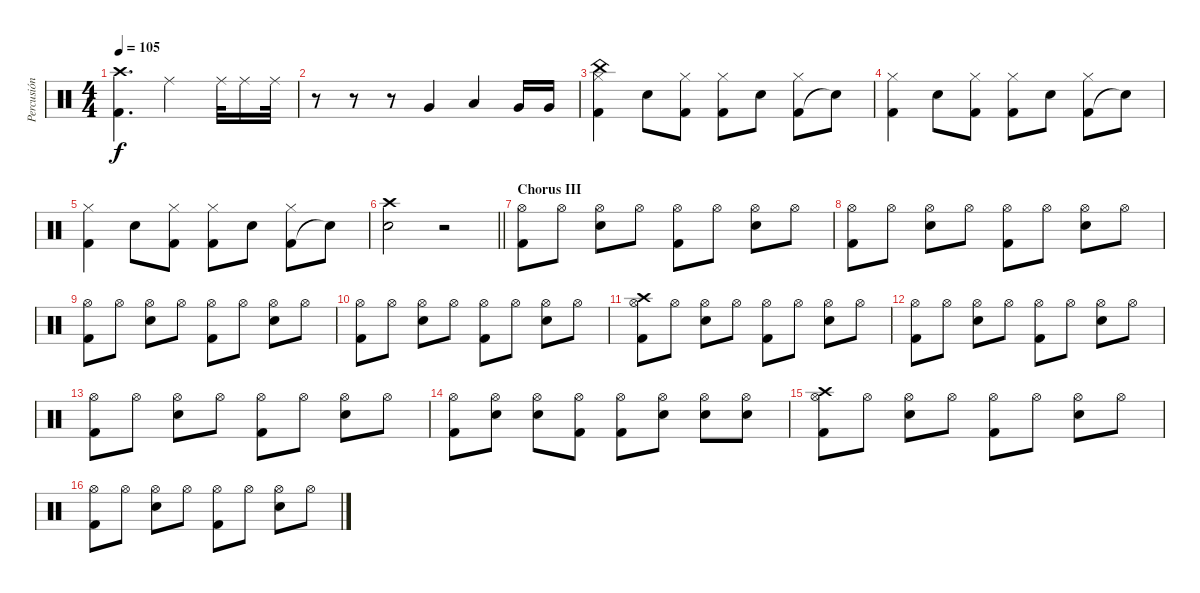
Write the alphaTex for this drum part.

\track ("Percusión" "Percusión") {instrument percussion}
\staff {score}
\articulation defaults
\ts (4 4)
\tempo 105
\clef neutral
\ks c
("Kick (hit) 2" "Crash high (hit)").4{d dy f} "Ride (middle)".2 "Ride (middle)".32 "Ride (middle)".16 "Ride (middle)".32 |
r.8 r.8 r.8 "Very Low Tom (hit)".4 "Low Floor Tom (hit)".4 "Very Low Tom (hit)".16 "Very Low Tom (hit)".16 |
("Kick (hit) 2" "Hi-Hat (closed)" "China (hit)").4 "Snare (hit) 2".8 ("Kick (hit) 2" "Hi-Hat (closed)").8 ("Kick (hit) 2" "Hi-Hat (closed)").8 "Snare (hit) 2".8 ("Kick (hit) 2" "Hi-Hat (closed)").8 "Snare (hit) 2"{t}.8 |
("Kick (hit) 2" "Hi-Hat (closed)").4 "Snare (hit) 2".8 ("Kick (hit) 2" "Hi-Hat (closed)").8 ("Kick (hit) 2" "Hi-Hat (closed)").8 "Snare (hit) 2".8 ("Kick (hit) 2" "Hi-Hat (closed)").8 "Snare (hit) 2"{t}.8 |
("Kick (hit) 2" "Hi-Hat (closed)").4 "Snare (hit) 2".8 ("Kick (hit) 2" "Hi-Hat (closed)").8 ("Kick (hit) 2" "Hi-Hat (closed)").8 "Snare (hit) 2".8 ("Kick (hit) 2" "Hi-Hat (closed)").8 "Snare (hit) 2"{t}.8 |
\barLineRight lightlight
("Crash high (hit)" "Snare (hit) 2").2 r.2 |
\section ("" "Chorus III")
("Hi-Hat (open)" "Kick (hit) 2").8 "Hi-Hat (open)".8 ("Hi-Hat (open)" "Snare (hit) 2").8 "Hi-Hat (open)".8 ("Hi-Hat (open)" "Kick (hit) 2").8 "Hi-Hat (open)".8 ("Hi-Hat (open)" "Snare (hit) 2").8 "Hi-Hat (open)".8 |
("Hi-Hat (open)" "Kick (hit) 2").8 "Hi-Hat (open)".8 ("Hi-Hat (open)" "Snare (hit) 2").8 "Hi-Hat (open)".8 ("Hi-Hat (open)" "Kick (hit) 2").8 "Hi-Hat (open)".8 ("Hi-Hat (open)" "Snare (hit) 2").8 "Hi-Hat (open)".8 |
("Hi-Hat (open)" "Kick (hit) 2").8 "Hi-Hat (open)".8 ("Hi-Hat (open)" "Snare (hit) 2").8 "Hi-Hat (open)".8 ("Hi-Hat (open)" "Kick (hit) 2").8 "Hi-Hat (open)".8 ("Hi-Hat (open)" "Snare (hit) 2").8 "Hi-Hat (open)".8 |
("Hi-Hat (open)" "Kick (hit) 2").8 "Hi-Hat (open)".8 ("Hi-Hat (open)" "Snare (hit) 2").8 "Hi-Hat (open)".8 ("Hi-Hat (open)" "Kick (hit) 2").8 "Hi-Hat (open)".8 ("Hi-Hat (open)" "Snare (hit) 2").8 "Hi-Hat (open)".8 |
("Hi-Hat (open)" "Kick (hit) 2" "Crash high (hit)").8 "Hi-Hat (open)".8 ("Hi-Hat (open)" "Snare (hit) 2").8 "Hi-Hat (open)".8 ("Hi-Hat (open)" "Kick (hit) 2").8 "Hi-Hat (open)".8 ("Hi-Hat (open)" "Snare (hit) 2").8 "Hi-Hat (open)".8 |
("Hi-Hat (open)" "Kick (hit) 2").8 "Hi-Hat (open)".8 ("Hi-Hat (open)" "Snare (hit) 2").8 "Hi-Hat (open)".8 ("Hi-Hat (open)" "Kick (hit) 2").8 "Hi-Hat (open)".8 ("Hi-Hat (open)" "Snare (hit) 2").8 "Hi-Hat (open)".8 |
("Hi-Hat (open)" "Kick (hit) 2").8 "Hi-Hat (open)".8 ("Hi-Hat (open)" "Snare (hit) 2").8 "Hi-Hat (open)".8 ("Hi-Hat (open)" "Kick (hit) 2").8 "Hi-Hat (open)".8 ("Hi-Hat (open)" "Snare (hit) 2").8 "Hi-Hat (open)".8 |
("Hi-Hat (open)" "Kick (hit) 2").8 ("Hi-Hat (open)" "Snare (hit) 2").8 ("Hi-Hat (open)" "Snare (hit) 2").8 ("Hi-Hat (open)" "Kick (hit) 2").8 ("Hi-Hat (open)" "Kick (hit) 2").8 ("Hi-Hat (open)" "Snare (hit) 2").8 ("Hi-Hat (open)" "Snare (hit) 2").8 ("Hi-Hat (open)" "Snare (hit) 2").8 |
("Hi-Hat (open)" "Kick (hit) 2" "Crash high (hit)").8 "Hi-Hat (open)".8 ("Hi-Hat (open)" "Snare (hit) 2").8 "Hi-Hat (open)".8 ("Hi-Hat (open)" "Kick (hit) 2").8 "Hi-Hat (open)".8 ("Hi-Hat (open)" "Snare (hit) 2").8 "Hi-Hat (open)".8 |
("Hi-Hat (open)" "Kick (hit) 2").8 "Hi-Hat (open)".8 ("Hi-Hat (open)" "Snare (hit) 2").8 "Hi-Hat (open)".8 ("Hi-Hat (open)" "Kick (hit) 2").8 "Hi-Hat (open)".8 ("Hi-Hat (open)" "Snare (hit) 2").8 "Hi-Hat (open)".8
